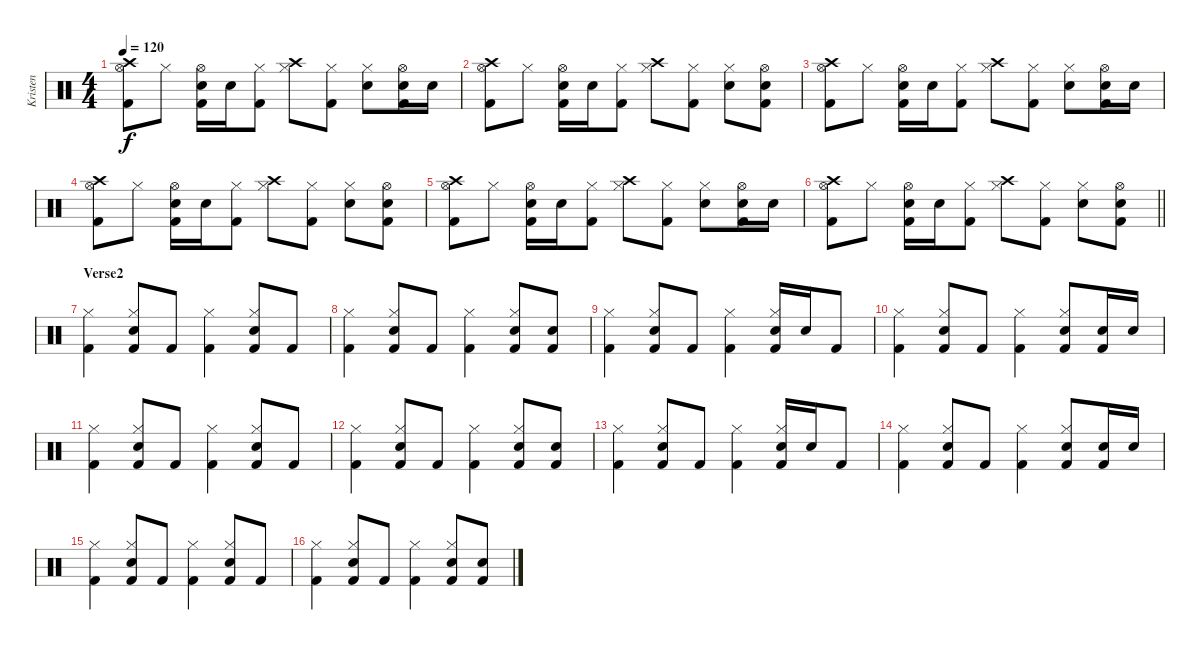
\track ("Kristen" "Kristen") {instrument percussion}
\staff {score}
\articulation defaults
\ts (4 4)
\tempo 120
\clef neutral
\ks c
("Crash high (hit)" "Hi-Hat (open)" "Kick (hit) 2").8{dy f} "Hi-Hat (closed)".8 ("Hi-Hat (open)" "Snare (hit) 2" "Kick (hit) 2").16 "Snare (hit) 2".16 ("Hi-Hat (closed)" "Kick (hit) 2").8 ("Crash high (hit)" "Hi-Hat (closed)").8 ("Hi-Hat (closed)" "Kick (hit) 2").8 ("Hi-Hat (closed)" "Snare (hit) 2").8 ("Hi-Hat (open)" "Snare (hit) 2" "Kick (hit) 2").16 "Snare (hit) 2".16 |
("Crash high (hit)" "Hi-Hat (open)" "Kick (hit) 2").8 "Hi-Hat (closed)".8 ("Hi-Hat (open)" "Snare (hit) 2" "Kick (hit) 2").16 "Snare (hit) 2".16 ("Hi-Hat (closed)" "Kick (hit) 2").8 ("Crash high (hit)" "Hi-Hat (closed)").8 ("Hi-Hat (closed)" "Kick (hit) 2").8 ("Hi-Hat (closed)" "Snare (hit) 2").8 ("Hi-Hat (open)" "Snare (hit) 2" "Kick (hit) 2").8 |
("Crash high (hit)" "Hi-Hat (open)" "Kick (hit) 2").8 "Hi-Hat (closed)".8 ("Hi-Hat (open)" "Snare (hit) 2" "Kick (hit) 2").16 "Snare (hit) 2".16 ("Hi-Hat (closed)" "Kick (hit) 2").8 ("Crash high (hit)" "Hi-Hat (closed)").8 ("Hi-Hat (closed)" "Kick (hit) 2").8 ("Hi-Hat (closed)" "Snare (hit) 2").8 ("Hi-Hat (open)" "Snare (hit) 2" "Kick (hit) 2").16 "Snare (hit) 2".16 |
("Crash high (hit)" "Hi-Hat (open)" "Kick (hit) 2").8 "Hi-Hat (closed)".8 ("Hi-Hat (open)" "Snare (hit) 2" "Kick (hit) 2").16 "Snare (hit) 2".16 ("Hi-Hat (closed)" "Kick (hit) 2").8 ("Crash high (hit)" "Hi-Hat (closed)").8 ("Hi-Hat (closed)" "Kick (hit) 2").8 ("Hi-Hat (closed)" "Snare (hit) 2").8 ("Hi-Hat (open)" "Snare (hit) 2" "Kick (hit) 2").8 |
("Crash high (hit)" "Hi-Hat (open)" "Kick (hit) 2").8 "Hi-Hat (closed)".8 ("Hi-Hat (open)" "Snare (hit) 2" "Kick (hit) 2").16 "Snare (hit) 2".16 ("Hi-Hat (closed)" "Kick (hit) 2").8 ("Crash high (hit)" "Hi-Hat (closed)").8 ("Hi-Hat (closed)" "Kick (hit) 2").8 ("Hi-Hat (closed)" "Snare (hit) 2").8 ("Hi-Hat (open)" "Snare (hit) 2" "Kick (hit) 2").16 "Snare (hit) 2".16 |
\barLineRight lightlight
("Crash high (hit)" "Hi-Hat (open)" "Kick (hit) 2").8 "Hi-Hat (closed)".8 ("Hi-Hat (open)" "Snare (hit) 2" "Kick (hit) 2").16 "Snare (hit) 2".16 ("Hi-Hat (closed)" "Kick (hit) 2").8 ("Crash high (hit)" "Hi-Hat (closed)").8 ("Hi-Hat (closed)" "Kick (hit) 2").8 ("Hi-Hat (closed)" "Snare (hit) 2").8 ("Hi-Hat (open)" "Snare (hit) 2" "Kick (hit) 2").8 |
\section ("" "Verse2")
("Hi-Hat (closed)" "Kick (hit) 2").4 ("Hi-Hat (closed)" "Snare (hit) 2" "Kick (hit) 2").8 "Kick (hit) 2".8 ("Hi-Hat (closed)" "Kick (hit) 2").4 ("Hi-Hat (closed)" "Snare (hit) 2" "Kick (hit) 2").8 "Kick (hit) 2".8 |
("Hi-Hat (closed)" "Kick (hit) 2").4 ("Hi-Hat (closed)" "Snare (hit) 2" "Kick (hit) 2").8 "Kick (hit) 2".8 ("Hi-Hat (closed)" "Kick (hit) 2").4 ("Hi-Hat (closed)" "Snare (hit) 2" "Kick (hit) 2").8 ("Snare (hit) 2" "Kick (hit) 2").8 |
("Hi-Hat (closed)" "Kick (hit) 2").4 ("Hi-Hat (closed)" "Snare (hit) 2" "Kick (hit) 2").8 "Kick (hit) 2".8 ("Hi-Hat (closed)" "Kick (hit) 2").4 ("Hi-Hat (closed)" "Snare (hit) 2" "Kick (hit) 2").16 "Snare (hit) 2".16 "Kick (hit) 2".8 |
("Hi-Hat (closed)" "Kick (hit) 2").4 ("Hi-Hat (closed)" "Snare (hit) 2" "Kick (hit) 2").8 "Kick (hit) 2".8 ("Hi-Hat (closed)" "Kick (hit) 2").4 ("Hi-Hat (closed)" "Snare (hit) 2" "Kick (hit) 2").8 ("Snare (hit) 2" "Kick (hit) 2").16 "Snare (hit) 2".16 |
("Hi-Hat (closed)" "Kick (hit) 2").4 ("Hi-Hat (closed)" "Snare (hit) 2" "Kick (hit) 2").8 "Kick (hit) 2".8 ("Hi-Hat (closed)" "Kick (hit) 2").4 ("Hi-Hat (closed)" "Snare (hit) 2" "Kick (hit) 2").8 "Kick (hit) 2".8 |
("Hi-Hat (closed)" "Kick (hit) 2").4 ("Hi-Hat (closed)" "Snare (hit) 2" "Kick (hit) 2").8 "Kick (hit) 2".8 ("Hi-Hat (closed)" "Kick (hit) 2").4 ("Hi-Hat (closed)" "Snare (hit) 2" "Kick (hit) 2").8 ("Snare (hit) 2" "Kick (hit) 2").8 |
("Hi-Hat (closed)" "Kick (hit) 2").4 ("Hi-Hat (closed)" "Snare (hit) 2" "Kick (hit) 2").8 "Kick (hit) 2".8 ("Hi-Hat (closed)" "Kick (hit) 2").4 ("Hi-Hat (closed)" "Snare (hit) 2" "Kick (hit) 2").16 "Snare (hit) 2".16 "Kick (hit) 2".8 |
("Hi-Hat (closed)" "Kick (hit) 2").4 ("Hi-Hat (closed)" "Snare (hit) 2" "Kick (hit) 2").8 "Kick (hit) 2".8 ("Hi-Hat (closed)" "Kick (hit) 2").4 ("Hi-Hat (closed)" "Snare (hit) 2" "Kick (hit) 2").8 ("Snare (hit) 2" "Kick (hit) 2").16 "Snare (hit) 2".16 |
("Hi-Hat (closed)" "Kick (hit) 2").4 ("Hi-Hat (closed)" "Snare (hit) 2" "Kick (hit) 2").8 "Kick (hit) 2".8 ("Hi-Hat (closed)" "Kick (hit) 2").4 ("Hi-Hat (closed)" "Snare (hit) 2" "Kick (hit) 2").8 "Kick (hit) 2".8 |
("Hi-Hat (closed)" "Kick (hit) 2").4 ("Hi-Hat (closed)" "Snare (hit) 2" "Kick (hit) 2").8 "Kick (hit) 2".8 ("Hi-Hat (closed)" "Kick (hit) 2").4 ("Hi-Hat (closed)" "Snare (hit) 2" "Kick (hit) 2").8 ("Snare (hit) 2" "Kick (hit) 2").8
